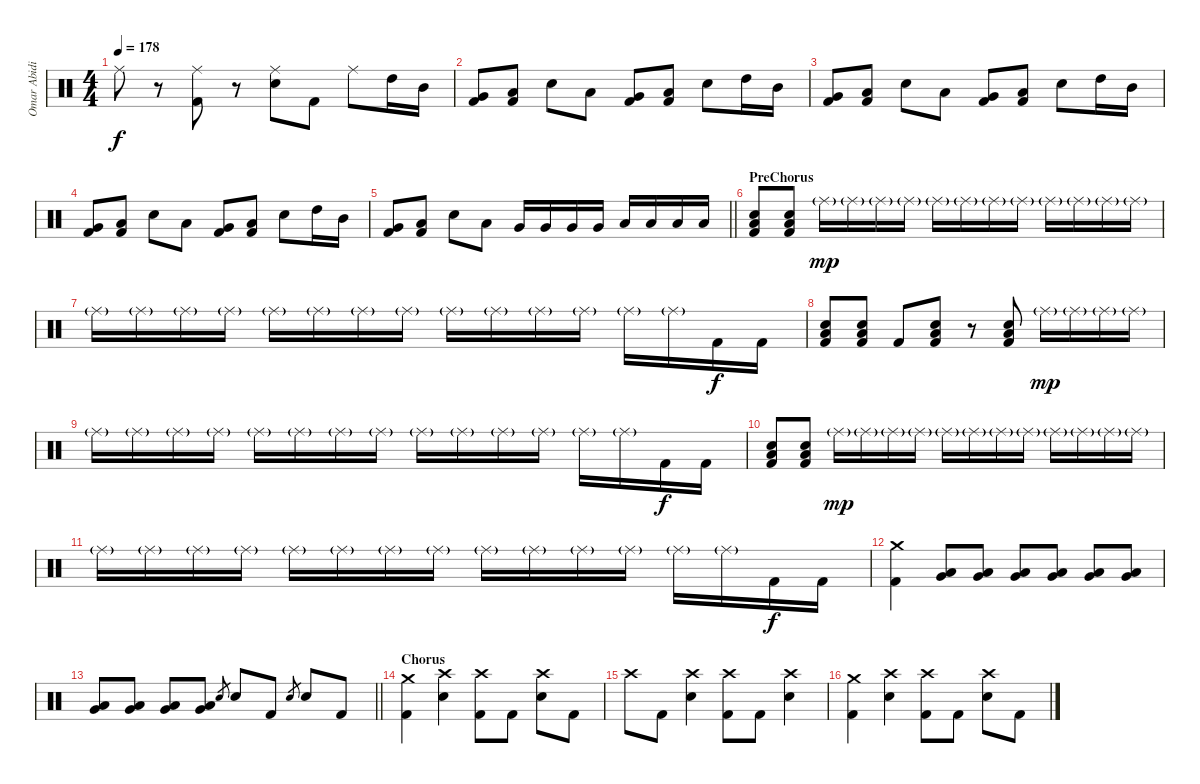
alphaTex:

\track ("Omar Abidi" "Omar Abidi") {instrument percussion}
\staff {score}
\articulation defaults
\ts (4 4)
\tempo 178
\clef neutral
\ks c "Ride (middle)".8{dy f}
r.8 ("Ride (middle)" "Kick (hit) 2").8 r.8 ("Ride (middle)" "Electric Snare (hit)").8 "Kick (hit) 2".8 "Ride (middle)".8 "High Tom (hit)".16 "Mid Tom (hit)".16 |
("Very Low Tom (hit)" "Kick (hit) 2").8 ("Low Floor Tom (hit)" "Kick (hit) 2").8 "Electric Snare (hit)".8 "Low Floor Tom (hit)".8 ("Very Low Tom (hit)" "Kick (hit) 2").8 ("Low Floor Tom (hit)" "Kick (hit) 2").8 "Electric Snare (hit)".8 "High Tom (hit)".16 "Mid Tom (hit)".16 |
("Very Low Tom (hit)" "Kick (hit) 2").8 ("Low Floor Tom (hit)" "Kick (hit) 2").8 "Electric Snare (hit)".8 "Low Floor Tom (hit)".8 ("Very Low Tom (hit)" "Kick (hit) 2").8 ("Low Floor Tom (hit)" "Kick (hit) 2").8 "Electric Snare (hit)".8 "High Tom (hit)".16 "Mid Tom (hit)".16 |
("Very Low Tom (hit)" "Kick (hit) 2").8 ("Low Floor Tom (hit)" "Kick (hit) 2").8 "Electric Snare (hit)".8 "Low Floor Tom (hit)".8 ("Very Low Tom (hit)" "Kick (hit) 2").8 ("Low Floor Tom (hit)" "Kick (hit) 2").8 "Electric Snare (hit)".8 "High Tom (hit)".16 "Mid Tom (hit)".16 |
\barLineRight lightlight
("Very Low Tom (hit)" "Kick (hit) 2").8 ("Low Floor Tom (hit)" "Kick (hit) 2").8 "Electric Snare (hit)".8 "Low Floor Tom (hit)".8 "Very Low Tom (hit)".16 "Very Low Tom (hit)".16 "Very Low Tom (hit)".16 "Very Low Tom (hit)".16 "Low Floor Tom (hit)".16 "Low Floor Tom (hit)".16 "Low Floor Tom (hit)".16 "Low Floor Tom (hit)".16 |
\section ("" "PreChorus")
("Electric Snare (hit)" "Low Floor Tom (hit)" "Kick (hit) 2").8 ("Electric Snare (hit)" "Low Floor Tom (hit)" "Kick (hit) 2").8 "Ride (middle)"{g}.16{dy mp} "Ride (middle)"{g}.16 "Ride (middle)"{g}.16 "Ride (middle)"{g}.16 "Ride (middle)"{g}.16 "Ride (middle)"{g}.16 "Ride (middle)"{g}.16 "Ride (middle)"{g}.16 "Ride (middle)"{g}.16 "Ride (middle)"{g}.16 "Ride (middle)"{g}.16 "Ride (middle)"{g}.16 |
"Ride (middle)"{g}.16 "Ride (middle)"{g}.16 "Ride (middle)"{g}.16 "Ride (middle)"{g}.16 "Ride (middle)"{g}.16 "Ride (middle)"{g}.16 "Ride (middle)"{g}.16 "Ride (middle)"{g}.16 "Ride (middle)"{g}.16 "Ride (middle)"{g}.16 "Ride (middle)"{g}.16 "Ride (middle)"{g}.16 "Ride (middle)"{g}.16 "Ride (middle)"{g}.16 "Kick (hit) 2".16{dy f} "Kick (hit) 2".16 |
("Electric Snare (hit)" "Low Floor Tom (hit)" "Kick (hit) 2").8 ("Electric Snare (hit)" "Low Floor Tom (hit)" "Kick (hit) 2").8 "Kick (hit) 2".8 ("Electric Snare (hit)" "Low Floor Tom (hit)" "Kick (hit) 2").8 r.8 ("Electric Snare (hit)" "Low Floor Tom (hit)" "Kick (hit) 2").8 "Ride (middle)"{g}.16{dy mp} "Ride (middle)"{g}.16 "Ride (middle)"{g}.16 "Ride (middle)"{g}.16 |
"Ride (middle)"{g}.16 "Ride (middle)"{g}.16 "Ride (middle)"{g}.16 "Ride (middle)"{g}.16 "Ride (middle)"{g}.16 "Ride (middle)"{g}.16 "Ride (middle)"{g}.16 "Ride (middle)"{g}.16 "Ride (middle)"{g}.16 "Ride (middle)"{g}.16 "Ride (middle)"{g}.16 "Ride (middle)"{g}.16 "Ride (middle)"{g}.16 "Ride (middle)"{g}.16 "Kick (hit) 2".16{dy f} "Kick (hit) 2".16 |
("Electric Snare (hit)" "Low Floor Tom (hit)" "Kick (hit) 2").8 ("Electric Snare (hit)" "Low Floor Tom (hit)" "Kick (hit) 2").8 "Ride (middle)"{g}.16{dy mp} "Ride (middle)"{g}.16 "Ride (middle)"{g}.16 "Ride (middle)"{g}.16 "Ride (middle)"{g}.16 "Ride (middle)"{g}.16 "Ride (middle)"{g}.16 "Ride (middle)"{g}.16 "Ride (middle)"{g}.16 "Ride (middle)"{g}.16 "Ride (middle)"{g}.16 "Ride (middle)"{g}.16 |
"Ride (middle)"{g}.16 "Ride (middle)"{g}.16 "Ride (middle)"{g}.16 "Ride (middle)"{g}.16 "Ride (middle)"{g}.16 "Ride (middle)"{g}.16 "Ride (middle)"{g}.16 "Ride (middle)"{g}.16 "Ride (middle)"{g}.16 "Ride (middle)"{g}.16 "Ride (middle)"{g}.16 "Ride (middle)"{g}.16 "Ride (middle)"{g}.16 "Ride (middle)"{g}.16 "Kick (hit) 2".16{dy f} "Kick (hit) 2".16 |
("Crash medium (hit)" "Kick (hit) 2").4 ("Very Low Tom (hit)" "Low Floor Tom (hit)").8 ("Very Low Tom (hit)" "Low Floor Tom (hit)").8 ("Very Low Tom (hit)" "Low Floor Tom (hit)").8 ("Very Low Tom (hit)" "Low Floor Tom (hit)").8 ("Very Low Tom (hit)" "Low Floor Tom (hit)").8 ("Very Low Tom (hit)" "Low Floor Tom (hit)").8 |
\barLineRight lightlight
("Very Low Tom (hit)" "Low Floor Tom (hit)").8 ("Very Low Tom (hit)" "Low Floor Tom (hit)").8 ("Very Low Tom (hit)" "Low Floor Tom (hit)").8 ("Very Low Tom (hit)" "Low Floor Tom (hit)").8 "Electric Snare (hit)".8{gr} "Electric Snare (hit)".8 "Kick (hit) 2".8 "Electric Snare (hit)".8{gr} "Electric Snare (hit)".8 "Kick (hit) 2".8 |
\section ("" "Chorus")
("Crash medium (hit)" "Kick (hit) 2").4 ("Crash high (hit)" "Electric Snare (hit)").4 ("Crash high (hit)" "Kick (hit) 2").8 "Kick (hit) 2".8 ("Crash high (hit)" "Electric Snare (hit)").8 "Kick (hit) 2".8 |
"Crash high (hit)".8 "Kick (hit) 2".8 ("Crash high (hit)" "Electric Snare (hit)").4 ("Crash high (hit)" "Kick (hit) 2").8 "Kick (hit) 2".8 ("Crash high (hit)" "Electric Snare (hit)").4 |
("Crash medium (hit)" "Kick (hit) 2").4 ("Crash high (hit)" "Electric Snare (hit)").4 ("Crash high (hit)" "Kick (hit) 2").8 "Kick (hit) 2".8 ("Crash high (hit)" "Electric Snare (hit)").8 "Kick (hit) 2".8
